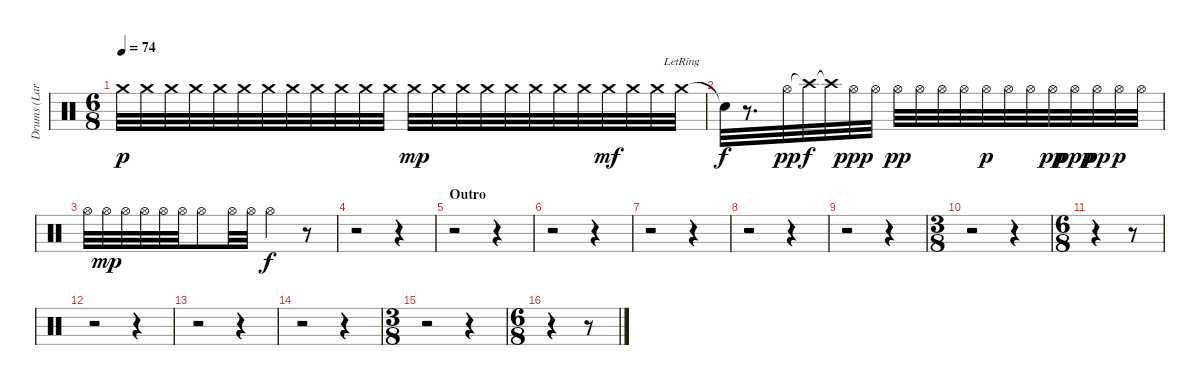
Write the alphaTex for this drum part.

\track ("Drums (Lars Ulrich)" "Drums (Lar") {instrument percussion}
\staff {score}
\articulation defaults
\ts (6 8)
\tempo 74
\clef neutral
\ks c "Crash medium (hit)".32{dy p} "Crash medium (hit)".32 "Crash medium (hit)".32 "Crash medium (hit)".32 "Crash medium (hit)".32 "Crash medium (hit)".32 "Crash medium (hit)".32 "Crash medium (hit)".32 "Crash medium (hit)".32 "Crash medium (hit)".32 "Crash medium (hit)".32 "Crash medium (hit)".32 "Crash medium (hit)".32{dy mp} "Crash medium (hit)".32 "Crash medium (hit)".32 "Crash medium (hit)".32 "Crash medium (hit)".32 "Crash medium (hit)".32 "Crash medium (hit)".32 "Crash medium (hit)".32 "Crash medium (hit)".32{dy mf} "Crash medium (hit)".32 "Crash medium (hit)".32 "Crash medium (hit)"{lr}.32
|
"Snare (hit)"{t}.32{dy f} r.8{d} "Hi-Hat (open)".32{dy pp} "Crash high (hit)"{t}.32{dy f} "Crash high (hit)"{t}.32 "Hi-Hat (open)".32{dy ppp} "Hi-Hat (open)".32 "Hi-Hat (open)".32{dy pp} "Hi-Hat (open)".32 "Hi-Hat (open)".32 "Hi-Hat (open)".32 "Hi-Hat (open)".32{dy p} "Hi-Hat (open)".32 "Hi-Hat (open)".32 "Hi-Hat (open)".32{dy pp} "Hi-Hat (open)".32{dy ppp} "Hi-Hat (open)".32{dy pp} "Hi-Hat (open)".32{dy p} "Hi-Hat (open)".32 |
"Hi-Hat (open)".32 "Hi-Hat (open)".32{dy mp} "Hi-Hat (open)".32 "Hi-Hat (open)".32 "Hi-Hat (open)".32 "Hi-Hat (open)".32 "Hi-Hat (open)".8 "Hi-Hat (open)".32 "Hi-Hat (open)".32 "Hi-Hat (open)".4{dy f} r.8 |
r.2 r.4 |
\section ("" "Outro")
r.2 r.4 |
r.2 r.4 |
r.2 r.4 |
r.2 r.4 |
r.2 r.4 |
\ts (3 8)
r.2 r.4 |
\ts (6 8)
r.4 r.8 |
r.2 r.4 |
r.2 r.4 |
r.2 r.4 |
\ts (3 8)
r.2 r.4 |
\ts (6 8)
r.4 r.8
